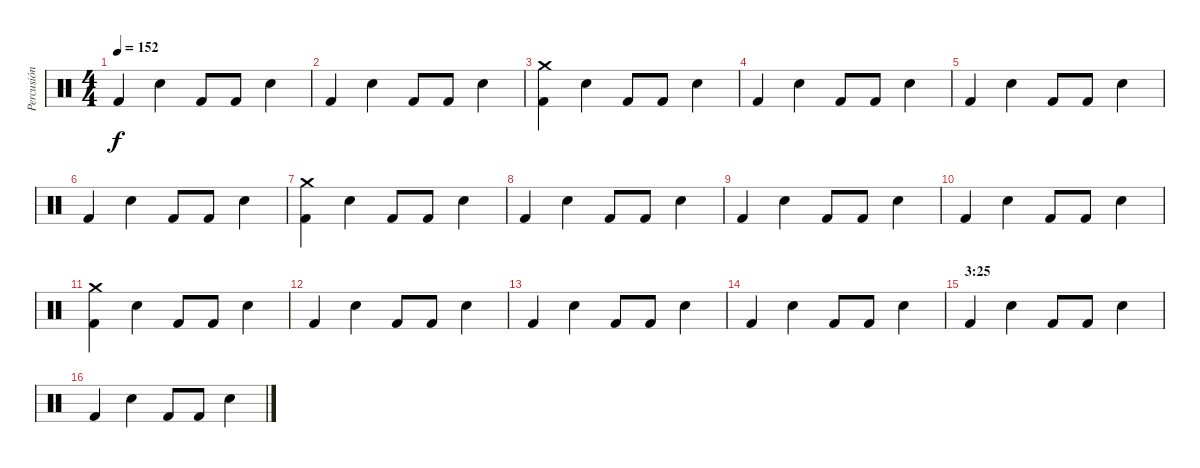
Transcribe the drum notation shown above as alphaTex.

\track ("Percusión" "Percusión") {instrument percussion}
\staff {score}
\articulation defaults
\ts (4 4)
\tempo 152
\clef neutral
\ks c "Kick (hit) 2".4{dy f} "Snare (hit) 2".4 "Kick (hit) 2".8 "Kick (hit) 2".8 "Snare (hit) 2".4
|
"Kick (hit) 2".4 "Snare (hit) 2".4 "Kick (hit) 2".8 "Kick (hit) 2".8 "Snare (hit) 2".4 |
("Kick (hit) 2" "Crash medium (hit)").4 "Snare (hit) 2".4 "Kick (hit) 2".8 "Kick (hit) 2".8 "Snare (hit) 2".4 |
"Kick (hit) 2".4 "Snare (hit) 2".4 "Kick (hit) 2".8 "Kick (hit) 2".8 "Snare (hit) 2".4 |
"Kick (hit) 2".4 "Snare (hit) 2".4 "Kick (hit) 2".8 "Kick (hit) 2".8 "Snare (hit) 2".4 |
"Kick (hit) 2".4 "Snare (hit) 2".4 "Kick (hit) 2".8 "Kick (hit) 2".8 "Snare (hit) 2".4 |
("Kick (hit) 2" "Crash medium (hit)").4 "Snare (hit) 2".4 "Kick (hit) 2".8 "Kick (hit) 2".8 "Snare (hit) 2".4 |
"Kick (hit) 2".4 "Snare (hit) 2".4 "Kick (hit) 2".8 "Kick (hit) 2".8 "Snare (hit) 2".4 |
"Kick (hit) 2".4 "Snare (hit) 2".4 "Kick (hit) 2".8 "Kick (hit) 2".8 "Snare (hit) 2".4 |
"Kick (hit) 2".4 "Snare (hit) 2".4 "Kick (hit) 2".8 "Kick (hit) 2".8 "Snare (hit) 2".4 |
("Kick (hit) 2" "Crash medium (hit)").4 "Snare (hit) 2".4 "Kick (hit) 2".8 "Kick (hit) 2".8 "Snare (hit) 2".4 |
"Kick (hit) 2".4 "Snare (hit) 2".4 "Kick (hit) 2".8 "Kick (hit) 2".8 "Snare (hit) 2".4 |
"Kick (hit) 2".4 "Snare (hit) 2".4 "Kick (hit) 2".8 "Kick (hit) 2".8 "Snare (hit) 2".4 |
"Kick (hit) 2".4 "Snare (hit) 2".4 "Kick (hit) 2".8 "Kick (hit) 2".8 "Snare (hit) 2".4 |
\section ("" "3:25")
"Kick (hit) 2".4 "Snare (hit) 2".4 "Kick (hit) 2".8 "Kick (hit) 2".8 "Snare (hit) 2".4 |
"Kick (hit) 2".4 "Snare (hit) 2".4 "Kick (hit) 2".8 "Kick (hit) 2".8 "Snare (hit) 2".4
